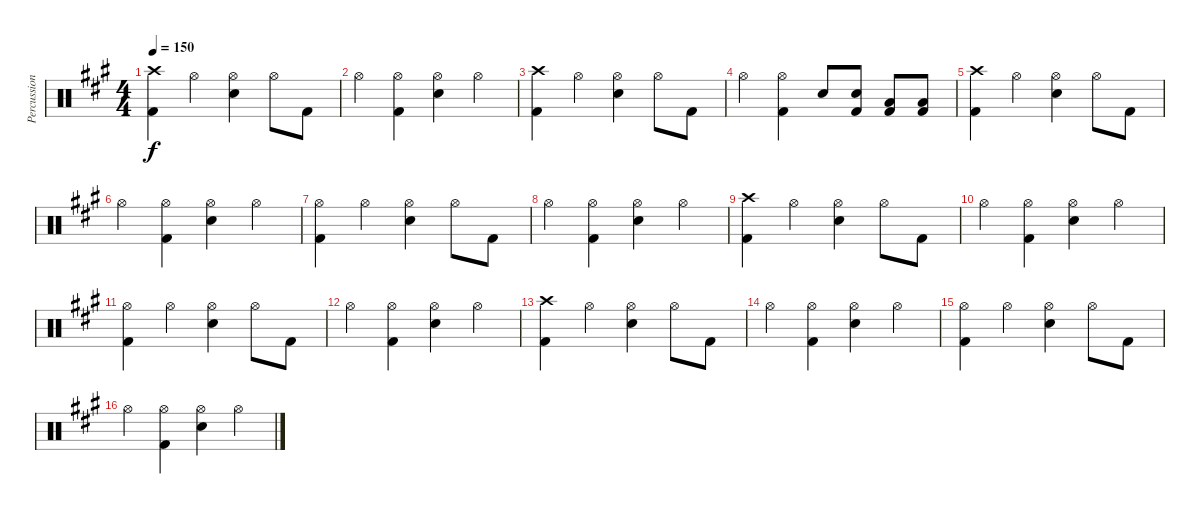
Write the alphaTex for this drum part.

\track ("Percussion" "Percussion") {instrument percussion}
\staff {score}
\articulation defaults
\ts (4 4)
\tempo 150
\clef neutral
\ks a
("Kick (hit) 2" "Crash high (hit)").4{dy f} "Hi-Hat (open)".4 ("Snare (hit) 2" "Hi-Hat (open)").4 "Hi-Hat (open)".8 "Kick (hit) 2".8 |
"Hi-Hat (open)".4 ("Kick (hit) 2" "Hi-Hat (open)").4 ("Snare (hit) 2" "Hi-Hat (open)").4 "Hi-Hat (open)".4 |
("Kick (hit) 2" "Crash high (hit)").4 "Hi-Hat (open)".4 ("Snare (hit) 2" "Hi-Hat (open)").4 "Hi-Hat (open)".8 "Kick (hit) 2".8 |
"Hi-Hat (open)".4 ("Kick (hit) 2" "Hi-Hat (open)").4 "Snare (hit) 2".8 ("Snare (hit) 2" "Kick (hit) 2").8 ("Low Tom (hit)" "Kick (hit) 2").8 ("Low Tom (hit)" "Kick (hit) 2").8 |
("Kick (hit) 2" "Crash high (hit)").4 "Hi-Hat (open)".4 ("Snare (hit) 2" "Hi-Hat (open)").4 "Hi-Hat (open)".8 "Kick (hit) 2".8 |
"Hi-Hat (open)".4 ("Kick (hit) 2" "Hi-Hat (open)").4 ("Snare (hit) 2" "Hi-Hat (open)").4 "Hi-Hat (open)".4 |
("Kick (hit) 2" "Hi-Hat (open)").4 "Hi-Hat (open)".4 ("Snare (hit) 2" "Hi-Hat (open)").4 "Hi-Hat (open)".8 "Kick (hit) 2".8 |
"Hi-Hat (open)".4 ("Kick (hit) 2" "Hi-Hat (open)").4 ("Snare (hit) 2" "Hi-Hat (open)").4 "Hi-Hat (open)".4 |
("Kick (hit) 2" "Crash high (hit)").4 "Hi-Hat (open)".4 ("Snare (hit) 2" "Hi-Hat (open)").4 "Hi-Hat (open)".8 "Kick (hit) 2".8 |
"Hi-Hat (open)".4 ("Kick (hit) 2" "Hi-Hat (open)").4 ("Snare (hit) 2" "Hi-Hat (open)").4 "Hi-Hat (open)".4 |
("Kick (hit) 2" "Hi-Hat (open)").4 "Hi-Hat (open)".4 ("Snare (hit) 2" "Hi-Hat (open)").4 "Hi-Hat (open)".8 "Kick (hit) 2".8 |
"Hi-Hat (open)".4 ("Kick (hit) 2" "Hi-Hat (open)").4 ("Snare (hit) 2" "Hi-Hat (open)").4 "Hi-Hat (open)".4 |
("Kick (hit) 2" "Crash high (hit)").4 "Hi-Hat (open)".4 ("Snare (hit) 2" "Hi-Hat (open)").4 "Hi-Hat (open)".8 "Kick (hit) 2".8 |
"Hi-Hat (open)".4 ("Kick (hit) 2" "Hi-Hat (open)").4 ("Snare (hit) 2" "Hi-Hat (open)").4 "Hi-Hat (open)".4 |
("Kick (hit) 2" "Hi-Hat (open)").4 "Hi-Hat (open)".4 ("Snare (hit) 2" "Hi-Hat (open)").4 "Hi-Hat (open)".8 "Kick (hit) 2".8 |
"Hi-Hat (open)".4 ("Kick (hit) 2" "Hi-Hat (open)").4 ("Snare (hit) 2" "Hi-Hat (open)").4 "Hi-Hat (open)".4
